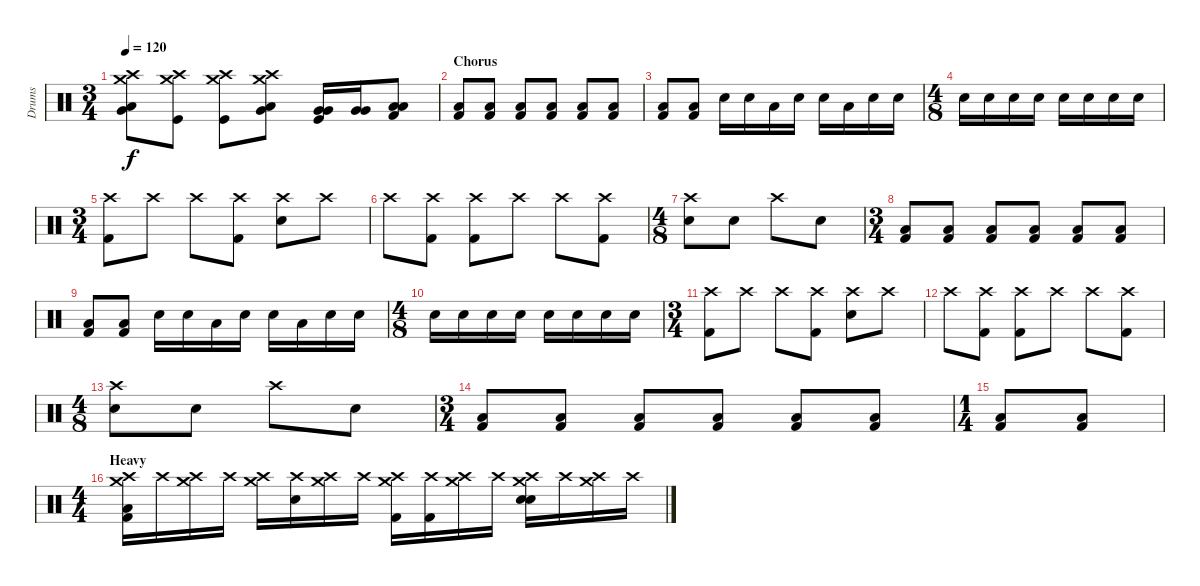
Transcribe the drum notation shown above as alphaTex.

\track ("Drums" "Drums") {instrument percussion}
\staff {score}
\articulation defaults
\ts (3 4)
\tempo 120
\clef neutral
\ks c
("Crash high (hit)" "Crash medium (hit)" "Low Tom (hit)" "Very Low Tom (hit)").8{dy f} ("Crash high (hit)" "Crash medium (hit)" "Kick (hit)").8 ("Crash high (hit)" "Crash medium (hit)" "Kick (hit)").8 ("Crash high (hit)" "Crash medium (hit)" "Low Tom (hit)" "Very Low Tom (hit)").8 ("Very Low Tom (hit)" "Very Low Tom (hit)" "Kick (hit)").16 ("Very Low Tom (hit)" "Very Low Tom (hit)").16 ("Low Tom (hit)" "Low Tom (hit)" "Kick (hit) 2").8 |
\section ("" "Chorus")
("Low Tom (hit)" "Kick (hit) 2").8{volume 6} ("Low Tom (hit)" "Kick (hit) 2").8{volume 13} ("Low Tom (hit)" "Kick (hit) 2").8 ("Low Tom (hit)" "Kick (hit) 2").8 ("Low Tom (hit)" "Kick (hit) 2").8 ("Low Tom (hit)" "Kick (hit) 2").8 |
("Low Tom (hit)" "Kick (hit) 2").8 ("Low Tom (hit)" "Kick (hit) 2").8 "Electric Snare (hit)".16 "Electric Snare (hit)".16 "Low Tom (hit)".16 "Electric Snare (hit)".16 "Electric Snare (hit)".16 "Low Tom (hit)".16 "Electric Snare (hit)".16 "Electric Snare (hit)".16 |
\ts (4 8)
"Electric Snare (hit)".16 "Electric Snare (hit)".16 "Electric Snare (hit)".16 "Electric Snare (hit)".16 "Electric Snare (hit)".16 "Electric Snare (hit)".16 "Electric Snare (hit)".16 "Electric Snare (hit)".16 |
\ts (3 4)
("Crash high (hit)" "Kick (hit) 2").8 "Crash high (hit)"{x}.8 "Crash high (hit)".8 ("Crash high (hit)"{x} "Kick (hit) 2").8 ("Crash high (hit)" "Electric Snare (hit)").8 "Crash high (hit)"{x}.8 |
"Crash high (hit)".8 ("Crash high (hit)"{x} "Kick (hit) 2").8 ("Crash high (hit)" "Kick (hit) 2").8 "Crash high (hit)"{x}.8 "Crash high (hit)".8 ("Crash high (hit)"{x} "Kick (hit) 2").8 |
\ts (4 8)
("Crash high (hit)" "Electric Snare (hit)").8 "Snare (hit)"{x}.8 "Crash high (hit)".8 "Snare (hit)"{x}.8 |
\ts (3 4)
("Low Tom (hit)" "Kick (hit) 2").8{volume 6} ("Low Tom (hit)" "Kick (hit) 2").8{volume 13} ("Low Tom (hit)" "Kick (hit) 2").8 ("Low Tom (hit)" "Kick (hit) 2").8 ("Low Tom (hit)" "Kick (hit) 2").8 ("Low Tom (hit)" "Kick (hit) 2").8 |
("Low Tom (hit)" "Kick (hit) 2").8 ("Low Tom (hit)" "Kick (hit) 2").8 "Electric Snare (hit)".16 "Electric Snare (hit)".16 "Low Tom (hit)".16 "Electric Snare (hit)".16 "Electric Snare (hit)".16 "Low Tom (hit)".16 "Electric Snare (hit)".16 "Electric Snare (hit)".16 |
\ts (4 8)
"Electric Snare (hit)".16 "Electric Snare (hit)".16 "Electric Snare (hit)".16 "Electric Snare (hit)".16 "Electric Snare (hit)".16 "Electric Snare (hit)".16 "Electric Snare (hit)".16 "Electric Snare (hit)".16 |
\ts (3 4)
("Crash high (hit)" "Kick (hit) 2").8 "Crash high (hit)"{x}.8 "Crash high (hit)".8 ("Crash high (hit)"{x} "Kick (hit) 2").8 ("Crash high (hit)" "Electric Snare (hit)").8 "Crash high (hit)"{x}.8 |
"Crash high (hit)".8 ("Crash high (hit)"{x} "Kick (hit) 2").8 ("Crash high (hit)" "Kick (hit) 2").8 "Crash high (hit)"{x}.8 "Crash high (hit)".8 ("Crash high (hit)"{x} "Kick (hit) 2").8 |
\ts (4 8)
("Crash high (hit)" "Electric Snare (hit)").8 "Snare (hit)"{x}.8 "Crash high (hit)".8 "Snare (hit)"{x}.8 |
\ts (3 4)
("Low Tom (hit)" "Kick (hit) 2").8{volume 8} ("Low Tom (hit)" "Kick (hit) 2").8{volume 13} ("Low Tom (hit)" "Kick (hit) 2").8 ("Low Tom (hit)" "Kick (hit) 2").8 ("Low Tom (hit)" "Kick (hit) 2").8 ("Low Tom (hit)" "Kick (hit) 2").8 |
\ts (1 4)
("Low Tom (hit)" "Kick (hit) 2").8 ("Low Tom (hit)" "Kick (hit) 2").8 |
\ts (4 4)
\section ("" "Heavy")
("Crash high (hit)" "Crash medium (hit)" "Low Tom (hit)" "Kick (hit) 2").16 "Crash high (hit)"{x}.16 ("Crash high (hit)"{x} "Crash medium (hit)"{x}).16 "Crash high (hit)"{x}.16 ("Crash high (hit)" "Crash medium (hit)").16 ("Crash high (hit)"{x} "Snare (hit)"{x}).16 ("Crash high (hit)"{x} "Crash medium (hit)"{x}).16 "Crash high (hit)"{x}.16 ("Crash high (hit)" "Crash medium (hit)" "Kick (hit) 2").16 ("Crash high (hit)"{x} "Kick (hit) 2").16 ("Crash high (hit)"{x} "Crash medium (hit)"{x}).16 "Crash high (hit)"{x}.16 ("Crash high (hit)" "Crash medium (hit)" "Electric Snare (hit)" "Snare (hit) 2").16 "Crash high (hit)"{x}.16 ("Crash high (hit)"{x} "Crash medium (hit)"{x}).16 "Crash high (hit)"{x}.16
